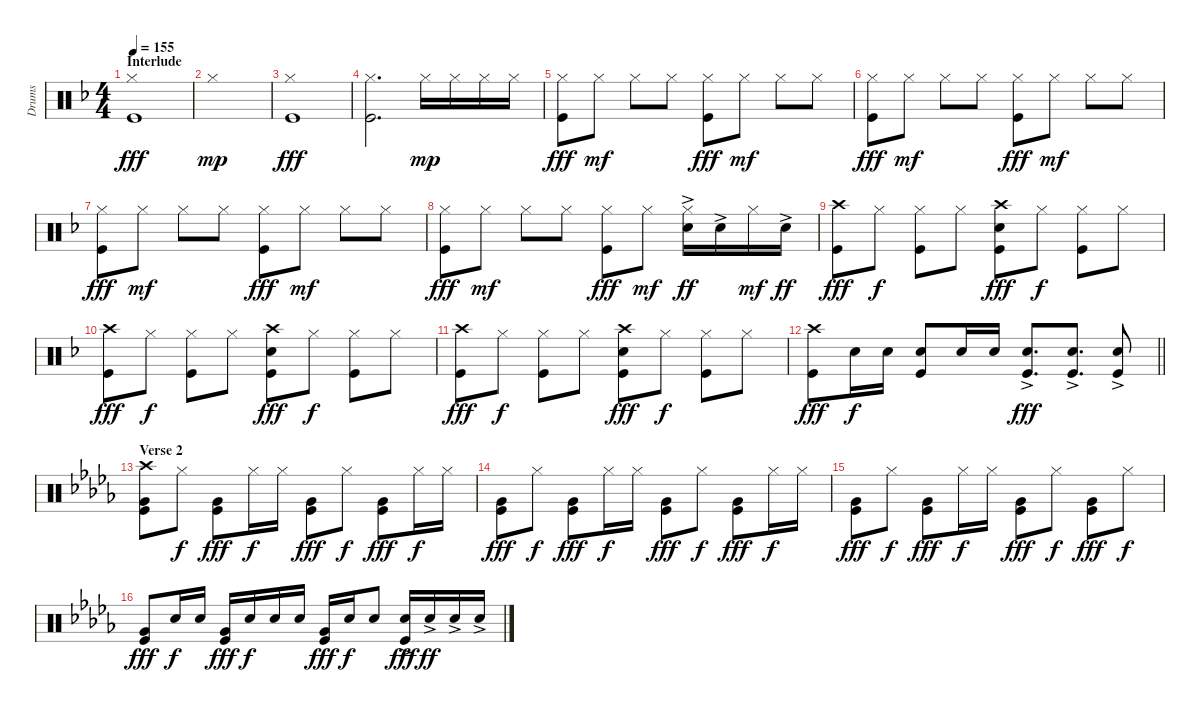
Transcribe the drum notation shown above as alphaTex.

\track ("Drums" "Drums") {instrument percussion bank 25}
\staff {score}
\articulation defaults
\ts (4 4)
\section ("" "Interlude")
\tempo 155
\clef neutral
\ks dminor
("Hi-Hat (closed)" "Kick (hit)").1{dy fff} |
"Hi-Hat (closed)".1{dy mp} |
("Hi-Hat (closed)" "Kick (hit)").1{dy fff} |
("Hi-Hat (closed)" "Kick (hit)").2{d} "Hi-Hat (closed)".16{dy mp} "Hi-Hat (closed)".16 "Hi-Hat (closed)".16 "Hi-Hat (closed)".16 |
("Hi-Hat (closed)" "Kick (hit)").8{dy fff} "Hi-Hat (closed)".8{dy mf} "Hi-Hat (closed)".8 "Hi-Hat (closed)".8 ("Hi-Hat (closed)" "Kick (hit)").8{dy fff} "Hi-Hat (closed)".8{dy mf} "Hi-Hat (closed)".8 "Hi-Hat (closed)".8 |
("Hi-Hat (closed)" "Kick (hit)").8{dy fff} "Hi-Hat (closed)".8{dy mf} "Hi-Hat (closed)".8 "Hi-Hat (closed)".8 ("Hi-Hat (closed)" "Kick (hit)").8{dy fff} "Hi-Hat (closed)".8{dy mf} "Hi-Hat (closed)".8 "Hi-Hat (closed)".8 |
("Hi-Hat (closed)" "Kick (hit)").8{dy fff} "Hi-Hat (closed)".8{dy mf} "Hi-Hat (closed)".8 "Hi-Hat (closed)".8 ("Hi-Hat (closed)" "Kick (hit)").8{dy fff} "Hi-Hat (closed)".8{dy mf} "Hi-Hat (closed)".8 "Hi-Hat (closed)".8 |
("Hi-Hat (closed)" "Kick (hit)").8{dy fff} "Hi-Hat (closed)".8{dy mf} "Hi-Hat (closed)".8 "Hi-Hat (closed)".8 ("Hi-Hat (closed)" "Kick (hit)").8{dy fff} "Hi-Hat (closed)".8{dy mf} ("Hi-Hat (closed)" "Snare (hit) 2"{ac}).16{dy ff} "Snare (hit) 2"{ac}.16 "Hi-Hat (closed)".16{dy mf} "Snare (hit) 2"{ac}.16{dy ff} |
("Crash high (hit)" "Kick (hit)").8{dy fff} "Hi-Hat (closed)".8{dy f} ("Hi-Hat (closed)" "Kick (hit)").8 "Hi-Hat (closed)".8 ("Crash high (hit)" "Snare (hit) 2" "Kick (hit)").8{dy fff} "Hi-Hat (closed)".8{dy f} ("Hi-Hat (closed)" "Kick (hit)").8 "Hi-Hat (closed)".8 |
("Crash high (hit)" "Kick (hit)").8{dy fff} "Hi-Hat (closed)".8{dy f} ("Hi-Hat (closed)" "Kick (hit)").8 "Hi-Hat (closed)".8 ("Crash high (hit)" "Snare (hit) 2" "Kick (hit)").8{dy fff} "Hi-Hat (closed)".8{dy f} ("Hi-Hat (closed)" "Kick (hit)").8 "Hi-Hat (closed)".8 |
("Crash high (hit)" "Kick (hit)").8{dy fff} "Hi-Hat (closed)".8{dy f} ("Hi-Hat (closed)" "Kick (hit)").8 "Hi-Hat (closed)".8 ("Crash high (hit)" "Snare (hit) 2" "Kick (hit)").8{dy fff} "Hi-Hat (closed)".8{dy f} ("Hi-Hat (closed)" "Kick (hit)").8 "Hi-Hat (closed)".8 |
\barLineRight lightlight
("Crash high (hit)" "Kick (hit)").8{dy fff} "Snare (hit) 2".16{dy f} "Snare (hit) 2".16 ("Snare (hit) 2" "Kick (hit)").8 "Snare (hit) 2".16 "Snare (hit) 2".16 ("Snare (hit) 2"{ac} "Kick (hit)").8{d dy fff} ("Snare (hit) 2"{ac} "Kick (hit)").8{d} ("Snare (hit) 2"{ac} "Kick (hit)").8 |
\section ("" "Verse 2")
\ks bbminor
("Crash high (hit)" "Very Low Tom (hit)" "Kick (hit)").8 "Hi-Hat (closed)".8{dy f} ("Very Low Tom (hit)" "Kick (hit)").8{dy fff} "Hi-Hat (closed)".16{dy f} "Hi-Hat (closed)".16 ("Very Low Tom (hit)" "Kick (hit)").8{dy fff} "Hi-Hat (closed)".8{dy f} ("Very Low Tom (hit)" "Kick (hit)").8{dy fff} "Hi-Hat (closed)".16{dy f} "Hi-Hat (closed)".16 |
("Very Low Tom (hit)" "Kick (hit)").8{dy fff} "Hi-Hat (closed)".8{dy f} ("Very Low Tom (hit)" "Kick (hit)").8{dy fff} "Hi-Hat (closed)".16{dy f} "Hi-Hat (closed)".16 ("Very Low Tom (hit)" "Kick (hit)").8{dy fff} "Hi-Hat (closed)".8{dy f} ("Very Low Tom (hit)" "Kick (hit)").8{dy fff} "Hi-Hat (closed)".16{dy f} "Hi-Hat (closed)".16 |
("Very Low Tom (hit)" "Kick (hit)").8{dy fff} "Hi-Hat (closed)".8{dy f} ("Very Low Tom (hit)" "Kick (hit)").8{dy fff} "Hi-Hat (closed)".16{dy f} "Hi-Hat (closed)".16 ("Very Low Tom (hit)" "Kick (hit)").8{dy fff} "Hi-Hat (closed)".8{dy f} ("Very Low Tom (hit)" "Kick (hit)").8{dy fff} "Hi-Hat (closed)".8{dy f} |
("Very Low Tom (hit)" "Kick (hit)").8{dy fff} "Snare (hit) 2".16{dy f} "Snare (hit) 2".16 ("Very Low Tom (hit)" "Kick (hit)").16{dy fff} "Snare (hit) 2".16{dy f} "Snare (hit) 2".16 "Snare (hit) 2".16 ("Very Low Tom (hit)" "Kick (hit)").16{dy fff} "Snare (hit) 2".16{dy f} "Snare (hit) 2".8 ("Snare (hit) 2"{ac} "Kick (hit)").16{dy fff} "Snare (hit) 2"{ac}.16{dy ff} "Snare (hit) 2"{ac}.16 "Snare (hit) 2"{ac}.16
